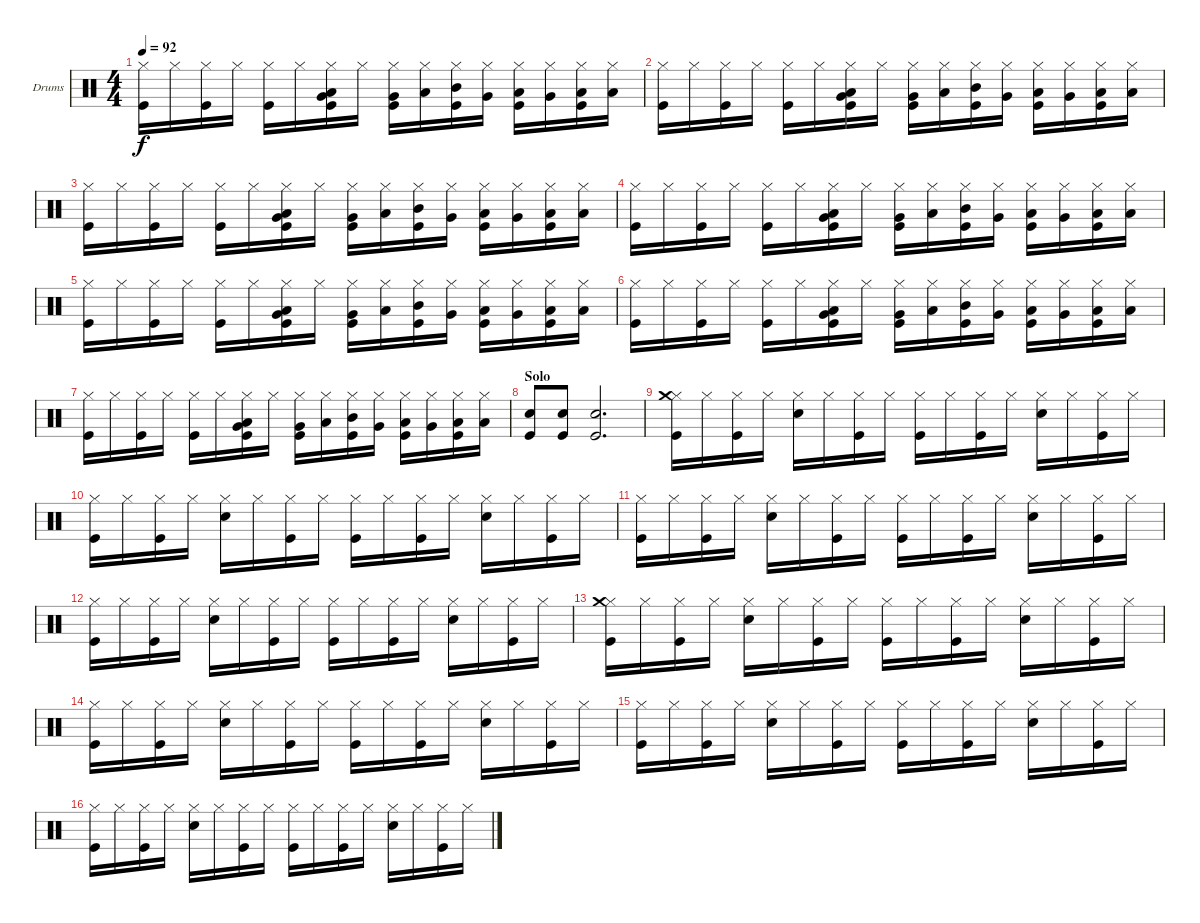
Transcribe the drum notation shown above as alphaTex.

\bracketExtendMode groupsimilarinstruments
\firstSystemTrackNameOrientation horizontal
\otherSystemsTrackNameOrientation horizontal
\track ("Drumkit" "Drums") {instrument percussion}
\staff {score}
\articulation defaults
\ts (4 4)
\tempo 92
\clef neutral
\ks c
("Hi-Hat (closed)" "Kick (hit)").16{dy f} "Hi-Hat (closed)".16 ("Hi-Hat (closed)" "Kick (hit)").16 "Hi-Hat (closed)".16 ("Hi-Hat (closed)" "Kick (hit)").16 "Hi-Hat (closed)".16 ("Hi-Hat (closed)" "Low Tom (hit)" "Very Low Tom (hit)" "Kick (hit)").16 "Hi-Hat (closed)".16 ("Hi-Hat (closed)" "Very Low Tom (hit)" "Kick (hit)").16 ("Hi-Hat (closed)" "Low Tom (hit)").16 ("Hi-Hat (closed)" "Mid Tom (hit)" "Kick (hit)").16 ("Hi-Hat (closed)" "Very Low Tom (hit)").16 ("Hi-Hat (closed)" "Low Tom (hit)" "Kick (hit)").16 ("Hi-Hat (closed)" "Very Low Tom (hit)").16 ("Hi-Hat (closed)" "Low Tom (hit)" "Kick (hit)").16 ("Hi-Hat (closed)" "Low Tom (hit)").16 |
("Hi-Hat (closed)" "Kick (hit)").16 "Hi-Hat (closed)".16 ("Hi-Hat (closed)" "Kick (hit)").16 "Hi-Hat (closed)".16 ("Hi-Hat (closed)" "Kick (hit)").16 "Hi-Hat (closed)".16 ("Hi-Hat (closed)" "Low Tom (hit)" "Very Low Tom (hit)" "Kick (hit)").16 "Hi-Hat (closed)".16 ("Hi-Hat (closed)" "Very Low Tom (hit)" "Kick (hit)").16 ("Hi-Hat (closed)" "Low Tom (hit)").16 ("Hi-Hat (closed)" "Mid Tom (hit)" "Kick (hit)").16 ("Hi-Hat (closed)" "Very Low Tom (hit)").16 ("Hi-Hat (closed)" "Low Tom (hit)" "Kick (hit)").16 ("Hi-Hat (closed)" "Very Low Tom (hit)").16 ("Hi-Hat (closed)" "Low Tom (hit)" "Kick (hit)").16 ("Hi-Hat (closed)" "Low Tom (hit)").16 |
("Hi-Hat (closed)" "Kick (hit)").16 "Hi-Hat (closed)".16 ("Hi-Hat (closed)" "Kick (hit)").16 "Hi-Hat (closed)".16 ("Hi-Hat (closed)" "Kick (hit)").16 "Hi-Hat (closed)".16 ("Hi-Hat (closed)" "Low Tom (hit)" "Very Low Tom (hit)" "Kick (hit)").16 "Hi-Hat (closed)".16 ("Hi-Hat (closed)" "Very Low Tom (hit)" "Kick (hit)").16 ("Hi-Hat (closed)" "Low Tom (hit)").16 ("Hi-Hat (closed)" "Mid Tom (hit)" "Kick (hit)").16 ("Hi-Hat (closed)" "Very Low Tom (hit)").16 ("Hi-Hat (closed)" "Low Tom (hit)" "Kick (hit)").16 ("Hi-Hat (closed)" "Very Low Tom (hit)").16 ("Hi-Hat (closed)" "Low Tom (hit)" "Kick (hit)").16 ("Hi-Hat (closed)" "Low Tom (hit)").16 |
("Hi-Hat (closed)" "Kick (hit)").16 "Hi-Hat (closed)".16 ("Hi-Hat (closed)" "Kick (hit)").16 "Hi-Hat (closed)".16 ("Hi-Hat (closed)" "Kick (hit)").16 "Hi-Hat (closed)".16 ("Hi-Hat (closed)" "Low Tom (hit)" "Very Low Tom (hit)" "Kick (hit)").16 "Hi-Hat (closed)".16 ("Hi-Hat (closed)" "Very Low Tom (hit)" "Kick (hit)").16 ("Hi-Hat (closed)" "Low Tom (hit)").16 ("Hi-Hat (closed)" "Mid Tom (hit)" "Kick (hit)").16 ("Hi-Hat (closed)" "Very Low Tom (hit)").16 ("Hi-Hat (closed)" "Low Tom (hit)" "Kick (hit)").16 ("Hi-Hat (closed)" "Very Low Tom (hit)").16 ("Hi-Hat (closed)" "Low Tom (hit)" "Kick (hit)").16 ("Hi-Hat (closed)" "Low Tom (hit)").16 |
("Hi-Hat (closed)" "Kick (hit)").16 "Hi-Hat (closed)".16 ("Hi-Hat (closed)" "Kick (hit)").16 "Hi-Hat (closed)".16 ("Hi-Hat (closed)" "Kick (hit)").16 "Hi-Hat (closed)".16 ("Hi-Hat (closed)" "Low Tom (hit)" "Very Low Tom (hit)" "Kick (hit)").16 "Hi-Hat (closed)".16 ("Hi-Hat (closed)" "Very Low Tom (hit)" "Kick (hit)").16 ("Hi-Hat (closed)" "Low Tom (hit)").16 ("Hi-Hat (closed)" "Mid Tom (hit)" "Kick (hit)").16 ("Hi-Hat (closed)" "Very Low Tom (hit)").16 ("Hi-Hat (closed)" "Low Tom (hit)" "Kick (hit)").16 ("Hi-Hat (closed)" "Very Low Tom (hit)").16 ("Hi-Hat (closed)" "Low Tom (hit)" "Kick (hit)").16 ("Hi-Hat (closed)" "Low Tom (hit)").16 |
("Hi-Hat (closed)" "Kick (hit)").16 "Hi-Hat (closed)".16 ("Hi-Hat (closed)" "Kick (hit)").16 "Hi-Hat (closed)".16 ("Hi-Hat (closed)" "Kick (hit)").16 "Hi-Hat (closed)".16 ("Hi-Hat (closed)" "Low Tom (hit)" "Very Low Tom (hit)" "Kick (hit)").16 "Hi-Hat (closed)".16 ("Hi-Hat (closed)" "Very Low Tom (hit)" "Kick (hit)").16 ("Hi-Hat (closed)" "Low Tom (hit)").16 ("Hi-Hat (closed)" "Mid Tom (hit)" "Kick (hit)").16 ("Hi-Hat (closed)" "Very Low Tom (hit)").16 ("Hi-Hat (closed)" "Low Tom (hit)" "Kick (hit)").16 ("Hi-Hat (closed)" "Very Low Tom (hit)").16 ("Hi-Hat (closed)" "Low Tom (hit)" "Kick (hit)").16 ("Hi-Hat (closed)" "Low Tom (hit)").16 |
("Hi-Hat (closed)" "Kick (hit)").16 "Hi-Hat (closed)".16 ("Hi-Hat (closed)" "Kick (hit)").16 "Hi-Hat (closed)".16 ("Hi-Hat (closed)" "Kick (hit)").16 "Hi-Hat (closed)".16 ("Hi-Hat (closed)" "Low Tom (hit)" "Very Low Tom (hit)" "Kick (hit)").16 "Hi-Hat (closed)".16 ("Hi-Hat (closed)" "Very Low Tom (hit)" "Kick (hit)").16 ("Hi-Hat (closed)" "Low Tom (hit)").16 ("Hi-Hat (closed)" "Mid Tom (hit)" "Kick (hit)").16 ("Hi-Hat (closed)" "Very Low Tom (hit)").16 ("Hi-Hat (closed)" "Low Tom (hit)" "Kick (hit)").16 ("Hi-Hat (closed)" "Very Low Tom (hit)").16 ("Hi-Hat (closed)" "Low Tom (hit)" "Kick (hit)").16 ("Hi-Hat (closed)" "Low Tom (hit)").16 |
\section ("" "Solo")
("Snare (hit) 2" "Kick (hit)").8 ("Snare (hit) 2" "Kick (hit)").8 ("Snare (hit) 2" "Kick (hit)").2{d} |
("Hi-Hat (closed)" "Crash medium (hit)" "Kick (hit)").16 "Hi-Hat (closed)".16 ("Hi-Hat (closed)" "Kick (hit)").16 "Hi-Hat (closed)".16 ("Hi-Hat (closed)" "Snare (hit) 2").16 "Hi-Hat (closed)".16 ("Hi-Hat (closed)" "Kick (hit)").16 "Hi-Hat (closed)".16 ("Hi-Hat (closed)" "Kick (hit)").16 "Hi-Hat (closed)".16 ("Hi-Hat (closed)" "Kick (hit)").16 "Hi-Hat (closed)".16 ("Hi-Hat (closed)" "Snare (hit) 2").16 "Hi-Hat (closed)".16 ("Hi-Hat (closed)" "Kick (hit)").16 "Hi-Hat (closed)".16 |
("Hi-Hat (closed)" "Kick (hit)").16 "Hi-Hat (closed)".16 ("Hi-Hat (closed)" "Kick (hit)").16 "Hi-Hat (closed)".16 ("Hi-Hat (closed)" "Snare (hit) 2").16 "Hi-Hat (closed)".16 ("Hi-Hat (closed)" "Kick (hit)").16 "Hi-Hat (closed)".16 ("Hi-Hat (closed)" "Kick (hit)").16 "Hi-Hat (closed)".16 ("Hi-Hat (closed)" "Kick (hit)").16 "Hi-Hat (closed)".16 ("Hi-Hat (closed)" "Snare (hit) 2").16 "Hi-Hat (closed)".16 ("Hi-Hat (closed)" "Kick (hit)").16 "Hi-Hat (closed)".16 |
("Hi-Hat (closed)" "Kick (hit)").16 "Hi-Hat (closed)".16 ("Hi-Hat (closed)" "Kick (hit)").16 "Hi-Hat (closed)".16 ("Hi-Hat (closed)" "Snare (hit) 2").16 "Hi-Hat (closed)".16 ("Hi-Hat (closed)" "Kick (hit)").16 "Hi-Hat (closed)".16 ("Hi-Hat (closed)" "Kick (hit)").16 "Hi-Hat (closed)".16 ("Hi-Hat (closed)" "Kick (hit)").16 "Hi-Hat (closed)".16 ("Hi-Hat (closed)" "Snare (hit) 2").16 "Hi-Hat (closed)".16 ("Hi-Hat (closed)" "Kick (hit)").16 "Hi-Hat (closed)".16 |
("Hi-Hat (closed)" "Kick (hit)").16 "Hi-Hat (closed)".16 ("Hi-Hat (closed)" "Kick (hit)").16 "Hi-Hat (closed)".16 ("Hi-Hat (closed)" "Snare (hit) 2").16 "Hi-Hat (closed)".16 ("Hi-Hat (closed)" "Kick (hit)").16 "Hi-Hat (closed)".16 ("Hi-Hat (closed)" "Kick (hit)").16 "Hi-Hat (closed)".16 ("Hi-Hat (closed)" "Kick (hit)").16 "Hi-Hat (closed)".16 ("Hi-Hat (closed)" "Snare (hit) 2").16 "Hi-Hat (closed)".16 ("Hi-Hat (closed)" "Kick (hit)").16 "Hi-Hat (closed)".16 |
("Hi-Hat (closed)" "Crash medium (hit)" "Kick (hit)").16 "Hi-Hat (closed)".16 ("Hi-Hat (closed)" "Kick (hit)").16 "Hi-Hat (closed)".16 ("Hi-Hat (closed)" "Snare (hit) 2").16 "Hi-Hat (closed)".16 ("Hi-Hat (closed)" "Kick (hit)").16 "Hi-Hat (closed)".16 ("Hi-Hat (closed)" "Kick (hit)").16 "Hi-Hat (closed)".16 ("Hi-Hat (closed)" "Kick (hit)").16 "Hi-Hat (closed)".16 ("Hi-Hat (closed)" "Snare (hit) 2").16 "Hi-Hat (closed)".16 ("Hi-Hat (closed)" "Kick (hit)").16 "Hi-Hat (closed)".16 |
("Hi-Hat (closed)" "Kick (hit)").16 "Hi-Hat (closed)".16 ("Hi-Hat (closed)" "Kick (hit)").16 "Hi-Hat (closed)".16 ("Hi-Hat (closed)" "Snare (hit) 2").16 "Hi-Hat (closed)".16 ("Hi-Hat (closed)" "Kick (hit)").16 "Hi-Hat (closed)".16 ("Hi-Hat (closed)" "Kick (hit)").16 "Hi-Hat (closed)".16 ("Hi-Hat (closed)" "Kick (hit)").16 "Hi-Hat (closed)".16 ("Hi-Hat (closed)" "Snare (hit) 2").16 "Hi-Hat (closed)".16 ("Hi-Hat (closed)" "Kick (hit)").16 "Hi-Hat (closed)".16 |
("Hi-Hat (closed)" "Kick (hit)").16 "Hi-Hat (closed)".16 ("Hi-Hat (closed)" "Kick (hit)").16 "Hi-Hat (closed)".16 ("Hi-Hat (closed)" "Snare (hit) 2").16 "Hi-Hat (closed)".16 ("Hi-Hat (closed)" "Kick (hit)").16 "Hi-Hat (closed)".16 ("Hi-Hat (closed)" "Kick (hit)").16 "Hi-Hat (closed)".16 ("Hi-Hat (closed)" "Kick (hit)").16 "Hi-Hat (closed)".16 ("Hi-Hat (closed)" "Snare (hit) 2").16 "Hi-Hat (closed)".16 ("Hi-Hat (closed)" "Kick (hit)").16 "Hi-Hat (closed)".16 |
("Hi-Hat (closed)" "Kick (hit)").16 "Hi-Hat (closed)".16 ("Hi-Hat (closed)" "Kick (hit)").16 "Hi-Hat (closed)".16 ("Hi-Hat (closed)" "Snare (hit) 2").16 "Hi-Hat (closed)".16 ("Hi-Hat (closed)" "Kick (hit)").16 "Hi-Hat (closed)".16 ("Hi-Hat (closed)" "Kick (hit)").16 "Hi-Hat (closed)".16 ("Hi-Hat (closed)" "Kick (hit)").16 "Hi-Hat (closed)".16 ("Hi-Hat (closed)" "Snare (hit) 2").16 "Hi-Hat (closed)".16 ("Hi-Hat (closed)" "Kick (hit)").16 "Hi-Hat (closed)".16
